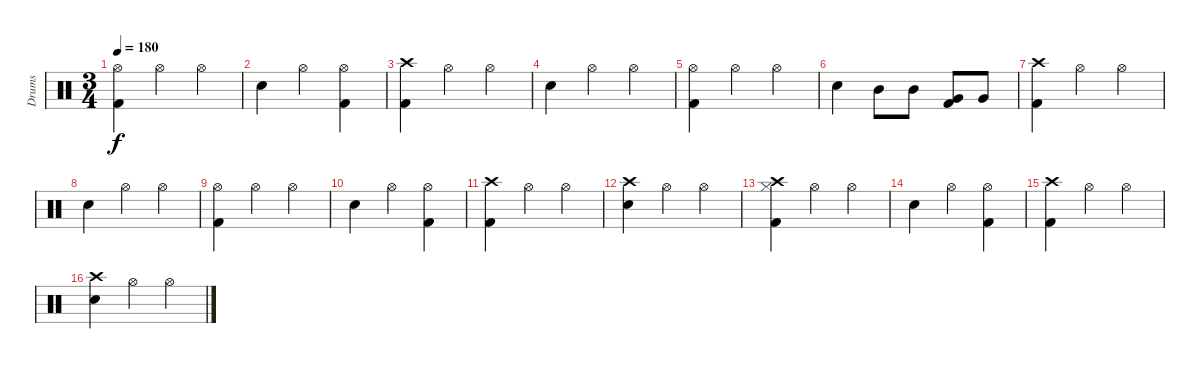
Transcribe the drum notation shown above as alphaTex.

\track ("Drums" "Drums") {instrument percussion}
\staff {score}
\articulation defaults
\ts (3 4)
\tempo 180
\clef neutral
\ks c
("Hi-Hat (open)" "Kick (hit) 2").4{dy f} "Hi-Hat (open)".4 "Hi-Hat (open)".4 |
"Snare (hit) 2".4 "Hi-Hat (open)".4 ("Hi-Hat (open)" "Kick (hit) 2").4 |
("Crash high (hit)" "Kick (hit) 2").4 "Hi-Hat (open)".4 "Hi-Hat (open)".4 |
"Snare (hit) 2".4 "Hi-Hat (open)".4 "Hi-Hat (open)".4 |
("Hi-Hat (open)" "Kick (hit) 2").4 "Hi-Hat (open)".4 "Hi-Hat (open)".4 |
"Snare (hit) 2".4 "Mid Tom (hit)".8 "Mid Tom (hit)".8 ("Very Low Tom (hit)" "Kick (hit) 2").8 "Very Low Tom (hit)".8 |
("Crash high (hit)" "Kick (hit) 2").4 "Hi-Hat (open)".4 "Hi-Hat (open)".4 |
"Snare (hit) 2".4 "Hi-Hat (open)".4 "Hi-Hat (open)".4 |
("Hi-Hat (open)" "Kick (hit) 2").4 "Hi-Hat (open)".4 "Hi-Hat (open)".4 |
"Snare (hit) 2".4 "Hi-Hat (open)".4 ("Hi-Hat (open)" "Kick (hit) 2").4 |
("Crash high (hit)" "Kick (hit) 2").4 "Hi-Hat (open)".4 "Hi-Hat (open)".4 |
("Snare (hit) 2" "Crash high (hit)").4 "Hi-Hat (open)".4 "Hi-Hat (open)".4 |
("Hi-Hat (closed)" "Kick (hit) 2" "Crash high (hit)").4 "Hi-Hat (open)".4 "Hi-Hat (open)".4 |
"Snare (hit) 2".4 "Hi-Hat (open)".4 ("Hi-Hat (open)" "Kick (hit) 2").4 |
("Crash high (hit)" "Kick (hit) 2").4 "Hi-Hat (open)".4 "Hi-Hat (open)".4 |
("Snare (hit) 2" "Crash high (hit)").4 "Hi-Hat (open)".4 "Hi-Hat (open)".4
